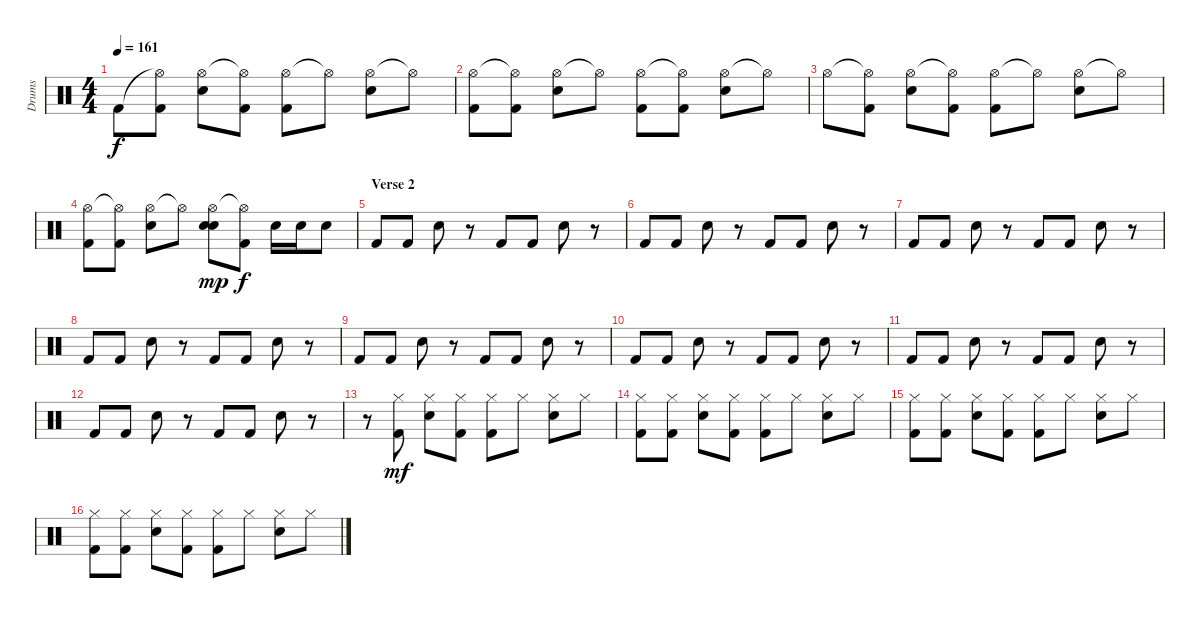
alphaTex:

\track ("Drums" "Drums") {instrument percussion}
\staff {score}
\articulation defaults
\ts (4 4)
\tempo 161
\clef neutral
\ks c "Kick (hit) 2".8{dy f}
("Hi-Hat (open)"{t} "Kick (hit) 2").8 ("Hi-Hat (open)" "Electric Snare (hit)").8 ("Hi-Hat (open)"{t} "Kick (hit) 2").8 ("Hi-Hat (open)" "Kick (hit) 2").8 "Hi-Hat (open)"{t}.8 ("Hi-Hat (open)" "Electric Snare (hit)").8 "Hi-Hat (open)"{t}.8 |
("Hi-Hat (open)" "Kick (hit) 2").8 ("Hi-Hat (open)"{t} "Kick (hit) 2").8 ("Hi-Hat (open)" "Electric Snare (hit)").8 "Hi-Hat (open)"{t}.8 ("Hi-Hat (open)" "Kick (hit) 2").8 ("Hi-Hat (open)"{t} "Kick (hit) 2").8 ("Hi-Hat (open)" "Electric Snare (hit)").8 "Hi-Hat (open)"{t}.8 |
"Hi-Hat (open)".8 ("Hi-Hat (open)"{t} "Kick (hit) 2").8 ("Hi-Hat (open)" "Electric Snare (hit)").8 ("Hi-Hat (open)"{t} "Kick (hit) 2").8 ("Hi-Hat (open)" "Kick (hit) 2").8 "Hi-Hat (open)"{t}.8 ("Hi-Hat (open)" "Electric Snare (hit)").8 "Hi-Hat (open)"{t}.8 |
("Hi-Hat (open)" "Kick (hit) 2").8 ("Hi-Hat (open)"{t} "Kick (hit) 2").8 ("Hi-Hat (open)" "Electric Snare (hit)").8 "Hi-Hat (open)"{t}.8 ("Hi-Hat (open)" "Electric Snare (hit)" "Electric Snare (hit)").8{dy mp} ("Hi-Hat (open)"{t} "Kick (hit) 2").8{dy f} "Electric Snare (hit)".16 "Electric Snare (hit)".16 "Electric Snare (hit)".8 |
\section ("" "Verse 2")
"Kick (hit) 2".8{volume 13} "Kick (hit) 2".8 "Electric Snare (hit)".8 r.8 "Kick (hit) 2".8 "Kick (hit) 2".8 "Electric Snare (hit)".8 r.8 |
"Kick (hit) 2".8 "Kick (hit) 2".8 "Electric Snare (hit)".8 r.8 "Kick (hit) 2".8 "Kick (hit) 2".8 "Electric Snare (hit)".8 r.8 |
"Kick (hit) 2".8 "Kick (hit) 2".8 "Electric Snare (hit)".8 r.8 "Kick (hit) 2".8 "Kick (hit) 2".8 "Electric Snare (hit)".8 r.8 |
"Kick (hit) 2".8 "Kick (hit) 2".8 "Electric Snare (hit)".8 r.8 "Kick (hit) 2".8 "Kick (hit) 2".8 "Electric Snare (hit)".8 r.8 |
"Kick (hit) 2".8 "Kick (hit) 2".8 "Electric Snare (hit)".8 r.8 "Kick (hit) 2".8 "Kick (hit) 2".8 "Electric Snare (hit)".8 r.8 |
"Kick (hit) 2".8 "Kick (hit) 2".8 "Electric Snare (hit)".8 r.8 "Kick (hit) 2".8 "Kick (hit) 2".8 "Electric Snare (hit)".8 r.8 |
"Kick (hit) 2".8 "Kick (hit) 2".8 "Electric Snare (hit)".8 r.8 "Kick (hit) 2".8 "Kick (hit) 2".8 "Electric Snare (hit)".8 r.8 |
"Kick (hit) 2".8 "Kick (hit) 2".8 "Electric Snare (hit)".8 r.8 "Kick (hit) 2".8 "Kick (hit) 2".8 "Electric Snare (hit)".8 r.8 |
r.8{volume 14} ("Hi-Hat (closed)" "Kick (hit) 2").8{dy mf} ("Hi-Hat (closed)" "Electric Snare (hit)").8 ("Hi-Hat (closed)" "Kick (hit) 2").8 ("Hi-Hat (closed)" "Kick (hit) 2").8 "Hi-Hat (closed)".8 ("Hi-Hat (closed)" "Electric Snare (hit)").8 "Hi-Hat (closed)".8 |
("Hi-Hat (closed)" "Kick (hit) 2").8 ("Hi-Hat (closed)" "Kick (hit) 2").8 ("Hi-Hat (closed)" "Electric Snare (hit)").8 ("Hi-Hat (closed)" "Kick (hit) 2").8 ("Hi-Hat (closed)" "Kick (hit) 2").8 "Hi-Hat (closed)".8 ("Hi-Hat (closed)" "Electric Snare (hit)").8 "Hi-Hat (closed)".8 |
("Hi-Hat (closed)" "Kick (hit) 2").8 ("Hi-Hat (closed)" "Kick (hit) 2").8 ("Hi-Hat (closed)" "Electric Snare (hit)").8 ("Hi-Hat (closed)" "Kick (hit) 2").8 ("Hi-Hat (closed)" "Kick (hit) 2").8 "Hi-Hat (closed)".8 ("Hi-Hat (closed)" "Electric Snare (hit)").8 "Hi-Hat (closed)".8 |
("Hi-Hat (closed)" "Kick (hit) 2").8 ("Hi-Hat (closed)" "Kick (hit) 2").8 ("Hi-Hat (closed)" "Electric Snare (hit)").8 ("Hi-Hat (closed)" "Kick (hit) 2").8 ("Hi-Hat (closed)" "Kick (hit) 2").8 "Hi-Hat (closed)".8 ("Hi-Hat (closed)" "Electric Snare (hit)").8 "Hi-Hat (closed)".8
